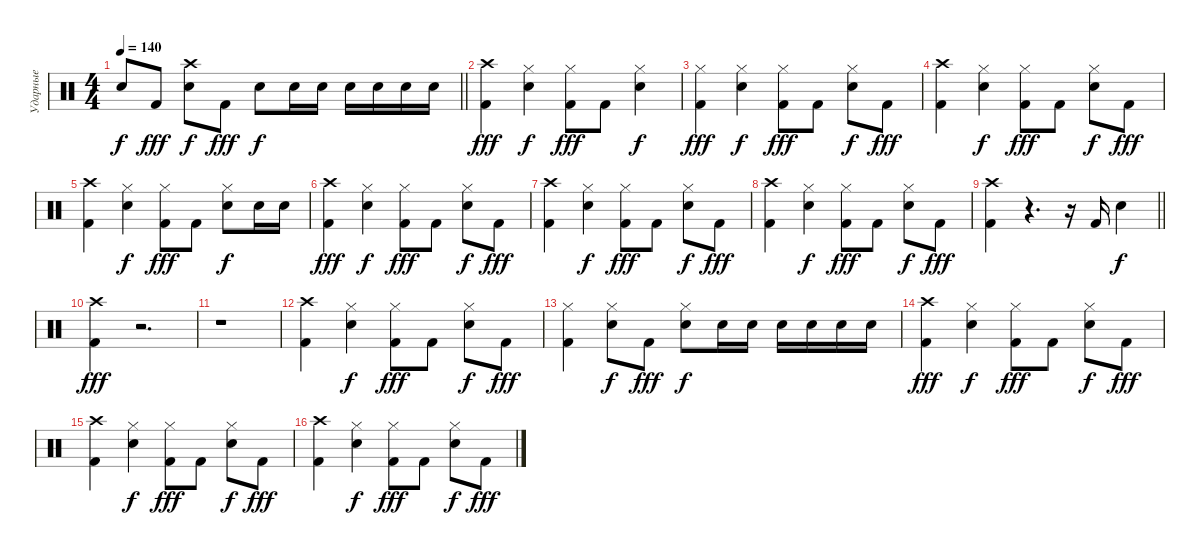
\track ("Ударные" "Ударные") {instrument percussion}
\staff {score}
\articulation defaults
\ts (4 4)
\tempo 140
\clef neutral
\barLineRight lightlight
\ks c "Snare (hit)"{t}.8{dy f} "Kick (hit) 2".8{dy fff}
("Snare (hit) 2" "Crash high (hit)").8{dy f} "Kick (hit) 2".8{dy fff} "Snare (hit) 2".8{dy f} "Snare (hit) 2".16 "Snare (hit) 2".16 "Snare (hit) 2".16 "Snare (hit) 2".16 "Snare (hit) 2".16 "Snare (hit) 2".16 |
("Kick (hit) 2" "Crash high (hit)").4{dy fff} ("Snare (hit) 2" "Hi-Hat (closed)").4{dy f} ("Kick (hit) 2" "Hi-Hat (closed)").8{dy fff} "Kick (hit) 2".8 ("Snare (hit) 2" "Hi-Hat (closed)").4{dy f} |
("Kick (hit) 2" "Hi-Hat (closed)").4{dy fff} ("Snare (hit) 2" "Hi-Hat (closed)").4{dy f} ("Kick (hit) 2" "Hi-Hat (closed)").8{dy fff} "Kick (hit) 2".8 ("Snare (hit) 2" "Hi-Hat (closed)").8{dy f} "Kick (hit) 2".8{dy fff} |
("Kick (hit) 2" "Crash high (hit)").4 ("Snare (hit) 2" "Hi-Hat (closed)").4{dy f} ("Kick (hit) 2" "Hi-Hat (closed)").8{dy fff} "Kick (hit) 2".8 ("Snare (hit) 2" "Hi-Hat (closed)").8{dy f} "Kick (hit) 2".8{dy fff} |
("Kick (hit) 2" "Crash high (hit)").4 ("Snare (hit) 2" "Hi-Hat (closed)").4{dy f} ("Kick (hit) 2" "Hi-Hat (closed)").8{dy fff} "Kick (hit) 2".8 ("Snare (hit) 2" "Hi-Hat (closed)").8{dy f} "Snare (hit) 2".16 "Snare (hit) 2".16 |
("Kick (hit) 2" "Crash high (hit)").4{dy fff} ("Snare (hit) 2" "Hi-Hat (closed)").4{dy f} ("Kick (hit) 2" "Hi-Hat (closed)").8{dy fff} "Kick (hit) 2".8 ("Snare (hit) 2" "Hi-Hat (closed)").8{dy f} "Kick (hit) 2".8{dy fff} |
("Kick (hit) 2" "Crash high (hit)").4 ("Snare (hit) 2" "Hi-Hat (closed)").4{dy f} ("Kick (hit) 2" "Hi-Hat (closed)").8{dy fff} "Kick (hit) 2".8 ("Snare (hit) 2" "Hi-Hat (closed)").8{dy f} "Kick (hit) 2".8{dy fff} |
("Kick (hit) 2" "Crash high (hit)").4 ("Snare (hit) 2" "Hi-Hat (closed)").4{dy f} ("Kick (hit) 2" "Hi-Hat (closed)").8{dy fff} "Kick (hit) 2".8 ("Snare (hit) 2" "Hi-Hat (closed)").8{dy f} "Kick (hit) 2".8{dy fff} |
\barLineRight lightlight
("Kick (hit) 2" "Crash high (hit)").4 r.4{d} r.16 "Kick (hit) 2".16 "Snare (hit) 2".4{dy f} |
("Kick (hit) 2" "Crash high (hit)").4{dy fff} r.2{d} |
r.1 |
("Kick (hit) 2" "Crash high (hit)").4 ("Snare (hit) 2" "Hi-Hat (closed)").4{dy f} ("Kick (hit) 2" "Hi-Hat (closed)").8{dy fff} "Kick (hit) 2".8 ("Snare (hit) 2" "Hi-Hat (closed)").8{dy f} "Kick (hit) 2".8{dy fff} |
("Kick (hit) 2" "Hi-Hat (closed)").4 ("Snare (hit) 2" "Hi-Hat (closed)").8{dy f} "Kick (hit) 2".8{dy fff} ("Snare (hit) 2" "Hi-Hat (closed)").8{dy f} "Snare (hit) 2".16 "Snare (hit) 2".16 "Snare (hit) 2".16 "Snare (hit) 2".16 "Snare (hit) 2".16 "Snare (hit) 2".16 |
("Kick (hit) 2" "Crash high (hit)").4{dy fff} ("Snare (hit) 2" "Hi-Hat (closed)").4{dy f} ("Kick (hit) 2" "Hi-Hat (closed)").8{dy fff} "Kick (hit) 2".8 ("Snare (hit) 2" "Hi-Hat (closed)").8{dy f} "Kick (hit) 2".8{dy fff} |
("Kick (hit) 2" "Crash high (hit)").4 ("Snare (hit) 2" "Hi-Hat (closed)").4{dy f} ("Kick (hit) 2" "Hi-Hat (closed)").8{dy fff} "Kick (hit) 2".8 ("Snare (hit) 2" "Hi-Hat (closed)").8{dy f} "Kick (hit) 2".8{dy fff} |
("Kick (hit) 2" "Crash high (hit)").4 ("Snare (hit) 2" "Hi-Hat (closed)").4{dy f} ("Kick (hit) 2" "Hi-Hat (closed)").8{dy fff} "Kick (hit) 2".8 ("Snare (hit) 2" "Hi-Hat (closed)").8{dy f} "Kick (hit) 2".8{dy fff}
